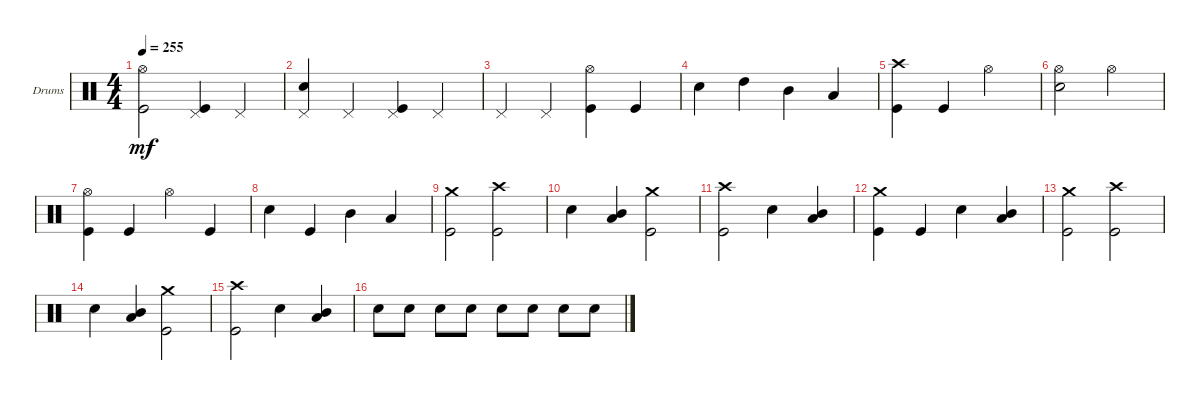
\bracketExtendMode groupsimilarinstruments
\firstSystemTrackNameOrientation horizontal
\otherSystemsTrackNameOrientation horizontal
\track ("Drums" "Drums") {instrument percussion}
\staff {score}
\articulation defaults
\ts (4 4)
\tempo 255
\clef neutral
\ks c
("Kick (hit)" "Hi-Hat (open)").2{dy mf} ("Kick (hit)" "Pedal Hi-Hat (hit)").4 "Pedal Hi-Hat (hit)".4 |
("Snare (hit) 2" "Pedal Hi-Hat (hit)").4 "Pedal Hi-Hat (hit)".4 ("Kick (hit)" "Pedal Hi-Hat (hit)").4 "Pedal Hi-Hat (hit)".4 |
"Pedal Hi-Hat (hit)".4 "Pedal Hi-Hat (hit)".4 ("Kick (hit)" "Hi-Hat (open)").4 "Kick (hit)".4 |
"Snare (hit) 2".4 "High Tom (hit)".4 "Mid Tom (hit)".4 "Low Tom (hit)".4 |
("Kick (hit)" "Crash high (hit)").4 "Kick (hit)".4 "Hi-Hat (open)".2 |
("Snare (hit) 2" "Hi-Hat (open)").2 "Hi-Hat (open)".2 |
("Kick (hit)" "Hi-Hat (open)").4 "Kick (hit)".4 "Hi-Hat (open)".4 "Kick (hit)".4 |
"Snare (hit) 2".4 "Kick (hit)".4 "Mid Tom (hit)".4 "Low Tom (hit)".4 |
("Kick (hit)" "Crash medium (hit)").2 ("Kick (hit)" "Crash high (hit)").2 |
"Snare (hit) 2".4 ("Low Tom (hit)" "Mid Tom (hit)").4 ("Kick (hit)" "Crash medium (hit)").2 |
("Kick (hit)" "Crash high (hit)").2 "Snare (hit) 2".4 ("Low Tom (hit)" "Mid Tom (hit)").4 |
("Kick (hit)" "Crash medium (hit)").4 "Kick (hit)".4 "Snare (hit) 2".4 ("Low Tom (hit)" "Mid Tom (hit)").4 |
("Kick (hit)" "Crash medium (hit)").2 ("Kick (hit)" "Crash high (hit)").2 |
"Snare (hit) 2".4 ("Low Tom (hit)" "Mid Tom (hit)").4 ("Kick (hit)" "Crash medium (hit)").2 |
("Kick (hit)" "Crash high (hit)").2 "Snare (hit) 2".4 ("Low Tom (hit)" "Mid Tom (hit)").4 |
"Snare (hit) 2".8 "Snare (hit) 2".8 "Snare (hit) 2".8 "Snare (hit) 2".8 "Snare (hit) 2".8 "Snare (hit) 2".8 "Snare (hit) 2".8 "Snare (hit) 2".8
